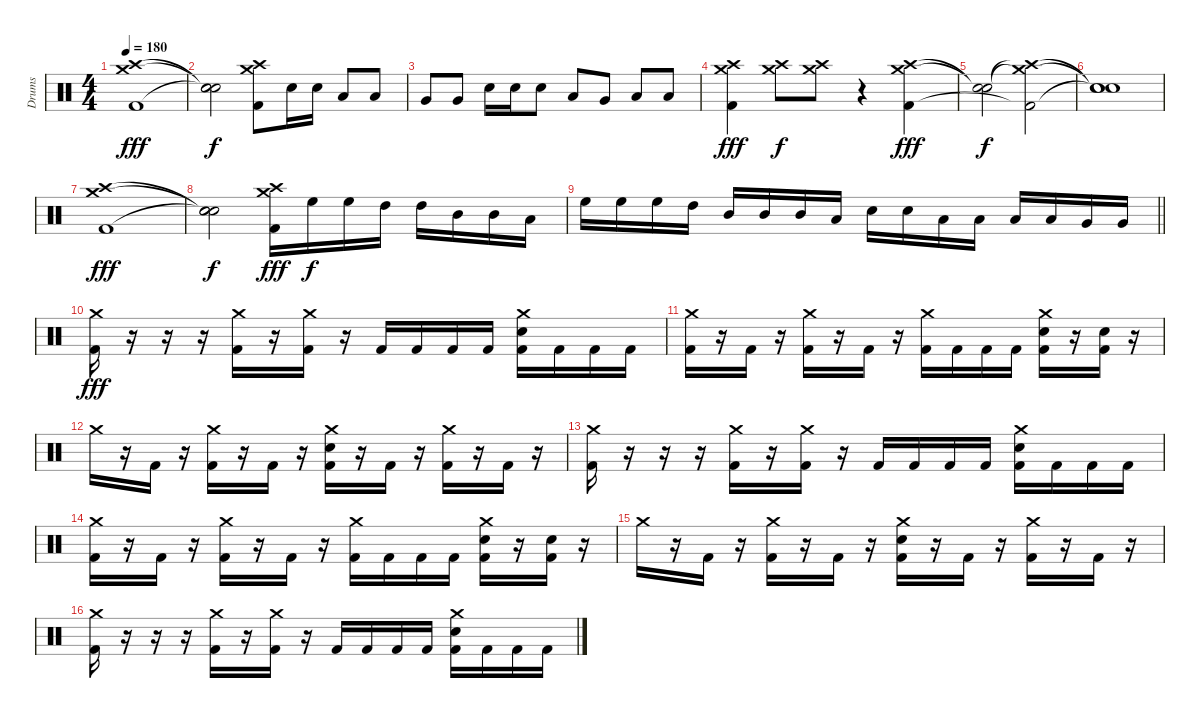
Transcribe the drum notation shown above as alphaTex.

\track ("Drums" "Drums") {instrument percussion}
\staff {score}
\articulation defaults
\ts (4 4)
\tempo 180
\clef neutral
\ks c
("Crash medium (hit)" "Crash high (hit)" "Kick (hit) 2").1{dy fff} |
("Snare (hit)"{t} "Snare (hit)"{t} "Snare (hit)"{t}).2{dy f} ("Crash medium (hit)" "Crash high (hit)" "Kick (hit) 2").8 "Electric Snare (hit)".16 "Electric Snare (hit)".16 "Low Floor Tom (hit)".8 "Low Floor Tom (hit)".8 |
"Very Low Tom (hit)".8 "Very Low Tom (hit)".8 "Electric Snare (hit)".16 "Electric Snare (hit)".16 "Electric Snare (hit)".8 "Low Tom (hit)".8 "Very Low Tom (hit)".8 "Low Floor Tom (hit)".8 "Low Floor Tom (hit)".8 |
("Crash medium (hit)" "Crash high (hit)" "Kick (hit) 2").4{dy fff} ("Crash medium (hit)" "Crash high (hit)").8{dy f} ("Crash medium (hit)" "Crash high (hit)").8 r.4 ("Crash medium (hit)" "Crash high (hit)" "Kick (hit) 2").4{dy fff} |
("Snare (hit)"{t} "Snare (hit)"{t}).2{dy f} ("Crash medium (hit)"{t} "Crash high (hit)"{t} "Kick (hit) 2"{t}).2 |
("Snare (hit)"{t} "Snare (hit)"{t} "Snare (hit)"{t}).1 |
("Crash medium (hit)" "Crash high (hit)" "Kick (hit) 2").1{dy fff} |
("Snare (hit)"{t} "Snare (hit)"{t} "Snare (hit)"{t}).2{dy f} ("Crash medium (hit)" "Crash high (hit)" "Kick (hit) 2").16{dy fff} "High Floor Tom (hit)".16{dy f} "High Floor Tom (hit)".16 "High Tom (hit)".16 "High Tom (hit)".16 "Mid Tom (hit)".16 "Mid Tom (hit)".16 "Low Tom (hit)".16 |
\barLineRight lightlight "High Floor Tom (hit)".16 "High Floor Tom (hit)".16 "High Floor Tom (hit)".16 "High Tom (hit)".16 "Mid Tom (hit)".16 "Mid Tom (hit)".16 "Mid Tom (hit)".16 "Low Tom (hit)".16 "Electric Snare (hit)".16 "Electric Snare (hit)".16 "Low Tom (hit)".16 "Low Tom (hit)".16 "Low Floor Tom (hit)".16 "Low Floor Tom (hit)".16 "Very Low Tom (hit)".16 "Very Low Tom (hit)".16
|
\section ("" "")
("Crash medium (hit)" "Kick (hit) 2").16{dy fff} r.16 r.16 r.16 ("Crash medium (hit)" "Kick (hit) 2").16 r.16 ("Crash medium (hit)" "Kick (hit) 2").16 r.16 "Kick (hit) 2".16 "Kick (hit) 2".16 "Kick (hit) 2".16 "Kick (hit) 2".16 ("Crash medium (hit)" "Electric Snare (hit)" "Kick (hit) 2").16 "Kick (hit) 2".16 "Kick (hit) 2".16 "Kick (hit) 2".16 |
("Crash medium (hit)" "Kick (hit) 2").16 r.16 "Kick (hit) 2".16 r.16 ("Crash medium (hit)" "Kick (hit) 2").16 r.16 "Kick (hit) 2".16 r.16 ("Crash medium (hit)" "Kick (hit) 2").16 "Kick (hit) 2".16 "Kick (hit) 2".16 "Kick (hit) 2".16 ("Crash medium (hit)" "Electric Snare (hit)" "Kick (hit) 2").16 r.16 ("Electric Snare (hit)" "Kick (hit) 2").16 r.16 |
"Crash medium (hit)".16 r.16 "Kick (hit) 2".16 r.16 ("Crash medium (hit)" "Kick (hit) 2").16 r.16 "Kick (hit) 2".16 r.16 ("Crash medium (hit)" "Electric Snare (hit)" "Kick (hit) 2").16 r.16 "Kick (hit) 2".16 r.16 ("Crash medium (hit)" "Kick (hit) 2").16 r.16 "Kick (hit) 2".16 r.16 |
("Crash medium (hit)" "Kick (hit) 2").16 r.16 r.16 r.16 ("Crash medium (hit)" "Kick (hit) 2").16 r.16 ("Crash medium (hit)" "Kick (hit) 2").16 r.16 "Kick (hit) 2".16 "Kick (hit) 2".16 "Kick (hit) 2".16 "Kick (hit) 2".16 ("Crash medium (hit)" "Electric Snare (hit)" "Kick (hit) 2").16 "Kick (hit) 2".16 "Kick (hit) 2".16 "Kick (hit) 2".16 |
("Crash medium (hit)" "Kick (hit) 2").16 r.16 "Kick (hit) 2".16 r.16 ("Crash medium (hit)" "Kick (hit) 2").16 r.16 "Kick (hit) 2".16 r.16 ("Crash medium (hit)" "Kick (hit) 2").16 "Kick (hit) 2".16 "Kick (hit) 2".16 "Kick (hit) 2".16 ("Crash medium (hit)" "Electric Snare (hit)" "Kick (hit) 2").16 r.16 ("Electric Snare (hit)" "Kick (hit) 2").16 r.16 |
"Crash medium (hit)".16 r.16 "Kick (hit) 2".16 r.16 ("Crash medium (hit)" "Kick (hit) 2").16 r.16 "Kick (hit) 2".16 r.16 ("Crash medium (hit)" "Electric Snare (hit)" "Kick (hit) 2").16 r.16 "Kick (hit) 2".16 r.16 ("Crash medium (hit)" "Kick (hit) 2").16 r.16 "Kick (hit) 2".16 r.16 |
("Crash medium (hit)" "Kick (hit) 2").16 r.16 r.16 r.16 ("Crash medium (hit)" "Kick (hit) 2").16 r.16 ("Crash medium (hit)" "Kick (hit) 2").16 r.16 "Kick (hit) 2".16 "Kick (hit) 2".16 "Kick (hit) 2".16 "Kick (hit) 2".16 ("Crash medium (hit)" "Electric Snare (hit)" "Kick (hit) 2").16 "Kick (hit) 2".16 "Kick (hit) 2".16 "Kick (hit) 2".16
